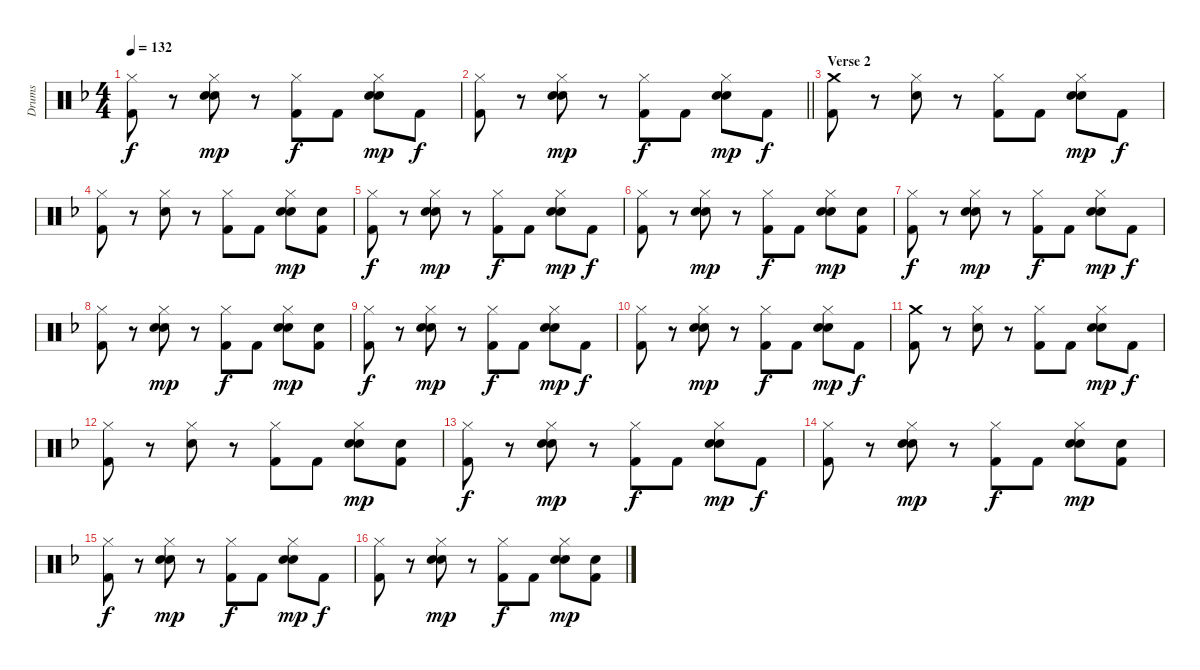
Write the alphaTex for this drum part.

\track ("Drums" "Drums") {instrument percussion}
\staff {score}
\articulation defaults
\ts (4 4)
\tempo 132
\clef neutral
\ks f
("Hi-Hat (closed)" "Kick (hit) 2").8{dy f} r.8 ("Hi-Hat (closed)" "Hand Clap (hit)" "Snare (hit) 2").8{dy mp} r.8 ("Hi-Hat (closed)" "Kick (hit) 2").8{dy f} "Kick (hit) 2".8 ("Hi-Hat (closed)" "Hand Clap (hit)" "Snare (hit) 2").8{dy mp} "Kick (hit) 2".8{dy f} |
\barLineRight lightlight
("Hi-Hat (closed)" "Kick (hit) 2").8 r.8 ("Hi-Hat (closed)" "Hand Clap (hit)" "Snare (hit) 2").8{dy mp} r.8 ("Hi-Hat (closed)" "Kick (hit) 2").8{dy f} "Kick (hit) 2".8 ("Hi-Hat (closed)" "Hand Clap (hit)" "Snare (hit) 2").8{dy mp} "Kick (hit) 2".8{dy f} |
\section ("" "Verse 2")
("Crash medium (hit)" "Kick (hit) 2").8 r.8 ("Hi-Hat (closed)" "Snare (hit) 2").8 r.8 ("Hi-Hat (closed)" "Kick (hit) 2").8 "Kick (hit) 2".8 ("Hi-Hat (closed)" "Hand Clap (hit)" "Snare (hit) 2").8{dy mp} "Kick (hit) 2".8{dy f} |
("Hi-Hat (closed)" "Kick (hit) 2").8 r.8 ("Hi-Hat (closed)" "Snare (hit) 2").8 r.8 ("Hi-Hat (closed)" "Kick (hit) 2").8 "Kick (hit) 2".8 ("Hi-Hat (closed)" "Hand Clap (hit)" "Snare (hit) 2").8{dy mp} ("Hand Clap (hit)" "Kick (hit) 2").8 |
("Hi-Hat (closed)" "Kick (hit) 2").8{dy f} r.8 ("Hi-Hat (closed)" "Hand Clap (hit)" "Snare (hit) 2").8{dy mp} r.8 ("Hi-Hat (closed)" "Kick (hit) 2").8{dy f} "Kick (hit) 2".8 ("Hi-Hat (closed)" "Hand Clap (hit)" "Snare (hit) 2").8{dy mp} "Kick (hit) 2".8{dy f} |
("Hi-Hat (closed)" "Kick (hit) 2").8 r.8 ("Hi-Hat (closed)" "Hand Clap (hit)" "Snare (hit) 2").8{dy mp} r.8 ("Hi-Hat (closed)" "Kick (hit) 2").8{dy f} "Kick (hit) 2".8 ("Hi-Hat (closed)" "Hand Clap (hit)" "Snare (hit) 2").8{dy mp} ("Hand Clap (hit)" "Kick (hit) 2").8 |
("Hi-Hat (closed)" "Kick (hit) 2").8{dy f} r.8 ("Hi-Hat (closed)" "Hand Clap (hit)" "Snare (hit) 2").8{dy mp} r.8 ("Hi-Hat (closed)" "Kick (hit) 2").8{dy f} "Kick (hit) 2".8 ("Hi-Hat (closed)" "Hand Clap (hit)" "Snare (hit) 2").8{dy mp} "Kick (hit) 2".8{dy f} |
("Hi-Hat (closed)" "Kick (hit) 2").8 r.8 ("Hi-Hat (closed)" "Hand Clap (hit)" "Snare (hit) 2").8{dy mp} r.8 ("Hi-Hat (closed)" "Kick (hit) 2").8{dy f} "Kick (hit) 2".8 ("Hi-Hat (closed)" "Hand Clap (hit)" "Snare (hit) 2").8{dy mp} ("Hand Clap (hit)" "Kick (hit) 2").8 |
("Hi-Hat (closed)" "Kick (hit) 2").8{dy f} r.8 ("Hi-Hat (closed)" "Hand Clap (hit)" "Snare (hit) 2").8{dy mp} r.8 ("Hi-Hat (closed)" "Kick (hit) 2").8{dy f} "Kick (hit) 2".8 ("Hi-Hat (closed)" "Hand Clap (hit)" "Snare (hit) 2").8{dy mp} "Kick (hit) 2".8{dy f} |
("Hi-Hat (closed)" "Kick (hit) 2").8 r.8 ("Hi-Hat (closed)" "Hand Clap (hit)" "Snare (hit) 2").8{dy mp} r.8 ("Hi-Hat (closed)" "Kick (hit) 2").8{dy f} "Kick (hit) 2".8 ("Hi-Hat (closed)" "Hand Clap (hit)" "Snare (hit) 2").8{dy mp} "Kick (hit) 2".8{dy f} |
("Crash medium (hit)" "Kick (hit) 2").8 r.8 ("Hi-Hat (closed)" "Snare (hit) 2").8 r.8 ("Hi-Hat (closed)" "Kick (hit) 2").8 "Kick (hit) 2".8 ("Hi-Hat (closed)" "Hand Clap (hit)" "Snare (hit) 2").8{dy mp} "Kick (hit) 2".8{dy f} |
("Hi-Hat (closed)" "Kick (hit) 2").8 r.8 ("Hi-Hat (closed)" "Snare (hit) 2").8 r.8 ("Hi-Hat (closed)" "Kick (hit) 2").8 "Kick (hit) 2".8 ("Hi-Hat (closed)" "Hand Clap (hit)" "Snare (hit) 2").8{dy mp} ("Hand Clap (hit)" "Kick (hit) 2").8 |
("Hi-Hat (closed)" "Kick (hit) 2").8{dy f} r.8 ("Hi-Hat (closed)" "Hand Clap (hit)" "Snare (hit) 2").8{dy mp} r.8 ("Hi-Hat (closed)" "Kick (hit) 2").8{dy f} "Kick (hit) 2".8 ("Hi-Hat (closed)" "Hand Clap (hit)" "Snare (hit) 2").8{dy mp} "Kick (hit) 2".8{dy f} |
("Hi-Hat (closed)" "Kick (hit) 2").8 r.8 ("Hi-Hat (closed)" "Hand Clap (hit)" "Snare (hit) 2").8{dy mp} r.8 ("Hi-Hat (closed)" "Kick (hit) 2").8{dy f} "Kick (hit) 2".8 ("Hi-Hat (closed)" "Hand Clap (hit)" "Snare (hit) 2").8{dy mp} ("Hand Clap (hit)" "Kick (hit) 2").8 |
("Hi-Hat (closed)" "Kick (hit) 2").8{dy f} r.8 ("Hi-Hat (closed)" "Hand Clap (hit)" "Snare (hit) 2").8{dy mp} r.8 ("Hi-Hat (closed)" "Kick (hit) 2").8{dy f} "Kick (hit) 2".8 ("Hi-Hat (closed)" "Hand Clap (hit)" "Snare (hit) 2").8{dy mp} "Kick (hit) 2".8{dy f} |
("Hi-Hat (closed)" "Kick (hit) 2").8 r.8 ("Hi-Hat (closed)" "Hand Clap (hit)" "Snare (hit) 2").8{dy mp} r.8 ("Hi-Hat (closed)" "Kick (hit) 2").8{dy f} "Kick (hit) 2".8 ("Hi-Hat (closed)" "Hand Clap (hit)" "Snare (hit) 2").8{dy mp} ("Hand Clap (hit)" "Kick (hit) 2").8
